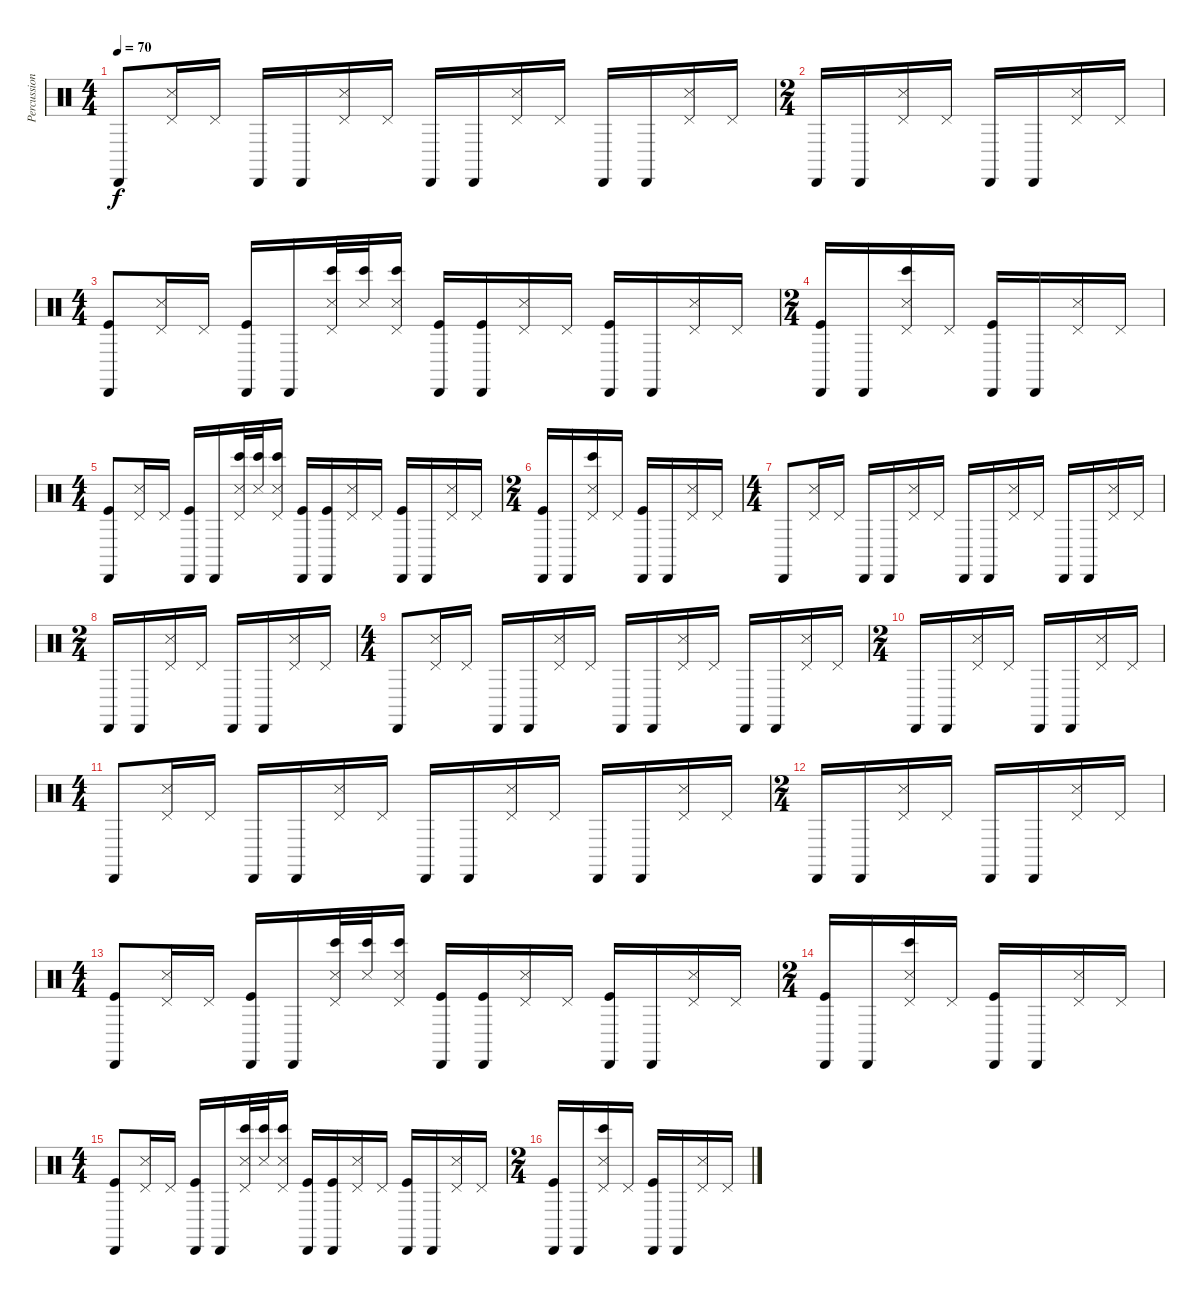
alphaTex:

\track ("Percussions" "Percussion") {instrument percussion}
\staff {score}
\articulation defaults
\ts (4 4)
\tempo 70
\clef neutral
\ks c "Cabasa (hit)".8{dy f}
("Pedal Hi-Hat (hit)" "Snare (side stick) 3").16 "Pedal Hi-Hat (hit)".16 "Cabasa (hit)".16 "Cabasa (hit)".16 ("Pedal Hi-Hat (hit)" "Snare (side stick) 3").16 "Pedal Hi-Hat (hit)".16 "Cabasa (hit)".16 "Cabasa (hit)".16 ("Pedal Hi-Hat (hit)" "Snare (side stick) 3").16 "Pedal Hi-Hat (hit)".16 "Cabasa (hit)".16 "Cabasa (hit)".16 ("Pedal Hi-Hat (hit)" "Snare (side stick) 3").16 "Pedal Hi-Hat (hit)".16 |
\ts (2 4)
"Cabasa (hit)".16 "Cabasa (hit)".16 ("Pedal Hi-Hat (hit)" "Snare (side stick) 3").16 "Pedal Hi-Hat (hit)".16 "Cabasa (hit)".16 "Cabasa (hit)".16 ("Pedal Hi-Hat (hit)" "Snare (side stick) 3").16 "Pedal Hi-Hat (hit)".16 |
\ts (4 4)
("Cabasa (hit)" "Kick (hit)").8 ("Pedal Hi-Hat (hit)" "Snare (side stick) 3").16 "Pedal Hi-Hat (hit)".16 ("Cabasa (hit)" "Kick (hit)").16 "Cabasa (hit)".16 ("Pedal Hi-Hat (hit)" "Snare (side stick) 3" "Bongo High (hit)").32 ("Snare (side stick) 3" "Bongo High (hit)").32 ("Pedal Hi-Hat (hit)" "Snare (side stick) 3" "Bongo High (hit)").16 ("Cabasa (hit)" "Kick (hit)").16 ("Cabasa (hit)" "Kick (hit)").16 ("Pedal Hi-Hat (hit)" "Snare (side stick) 3").16 "Pedal Hi-Hat (hit)".16 ("Cabasa (hit)" "Kick (hit)").16 "Cabasa (hit)".16 ("Pedal Hi-Hat (hit)" "Snare (side stick) 3").16 "Pedal Hi-Hat (hit)".16 |
\ts (2 4)
("Cabasa (hit)" "Kick (hit)").16 "Cabasa (hit)".16 ("Pedal Hi-Hat (hit)" "Snare (side stick) 3" "Bongo High (hit)").16 "Pedal Hi-Hat (hit)".16 ("Cabasa (hit)" "Kick (hit)").16 "Cabasa (hit)".16 ("Pedal Hi-Hat (hit)" "Snare (side stick) 3").16 "Pedal Hi-Hat (hit)".16 |
\ts (4 4)
("Cabasa (hit)" "Kick (hit)").8 ("Pedal Hi-Hat (hit)" "Snare (side stick) 3").16 "Pedal Hi-Hat (hit)".16 ("Cabasa (hit)" "Kick (hit)").16 "Cabasa (hit)".16 ("Pedal Hi-Hat (hit)" "Snare (side stick) 3" "Bongo High (hit)").32 ("Snare (side stick) 3" "Bongo High (hit)").32 ("Pedal Hi-Hat (hit)" "Snare (side stick) 3" "Bongo High (hit)").16 ("Cabasa (hit)" "Kick (hit)").16 ("Cabasa (hit)" "Kick (hit)").16 ("Pedal Hi-Hat (hit)" "Snare (side stick) 3").16 "Pedal Hi-Hat (hit)".16 ("Cabasa (hit)" "Kick (hit)").16 "Cabasa (hit)".16 ("Pedal Hi-Hat (hit)" "Snare (side stick) 3").16 "Pedal Hi-Hat (hit)".16 |
\ts (2 4)
("Cabasa (hit)" "Kick (hit)").16 "Cabasa (hit)".16 ("Pedal Hi-Hat (hit)" "Snare (side stick) 3" "Bongo High (hit)").16 "Pedal Hi-Hat (hit)".16 ("Cabasa (hit)" "Kick (hit)").16 "Cabasa (hit)".16 ("Pedal Hi-Hat (hit)" "Snare (side stick) 3").16 "Pedal Hi-Hat (hit)".16 |
\ts (4 4)
"Cabasa (hit)".8 ("Pedal Hi-Hat (hit)" "Snare (side stick) 3").16 "Pedal Hi-Hat (hit)".16 "Cabasa (hit)".16 "Cabasa (hit)".16 ("Pedal Hi-Hat (hit)" "Snare (side stick) 3").16 "Pedal Hi-Hat (hit)".16 "Cabasa (hit)".16 "Cabasa (hit)".16 ("Pedal Hi-Hat (hit)" "Snare (side stick) 3").16 "Pedal Hi-Hat (hit)".16 "Cabasa (hit)".16 "Cabasa (hit)".16 ("Pedal Hi-Hat (hit)" "Snare (side stick) 3").16 "Pedal Hi-Hat (hit)".16 |
\ts (2 4)
"Cabasa (hit)".16 "Cabasa (hit)".16 ("Pedal Hi-Hat (hit)" "Snare (side stick) 3").16 "Pedal Hi-Hat (hit)".16 "Cabasa (hit)".16 "Cabasa (hit)".16 ("Pedal Hi-Hat (hit)" "Snare (side stick) 3").16 "Pedal Hi-Hat (hit)".16 |
\ts (4 4)
"Cabasa (hit)".8 ("Pedal Hi-Hat (hit)" "Snare (side stick) 3").16 "Pedal Hi-Hat (hit)".16 "Cabasa (hit)".16 "Cabasa (hit)".16 ("Pedal Hi-Hat (hit)" "Snare (side stick) 3").16 "Pedal Hi-Hat (hit)".16 "Cabasa (hit)".16 "Cabasa (hit)".16 ("Pedal Hi-Hat (hit)" "Snare (side stick) 3").16 "Pedal Hi-Hat (hit)".16 "Cabasa (hit)".16 "Cabasa (hit)".16 ("Pedal Hi-Hat (hit)" "Snare (side stick) 3").16 "Pedal Hi-Hat (hit)".16 |
\ts (2 4)
"Cabasa (hit)".16 "Cabasa (hit)".16 ("Pedal Hi-Hat (hit)" "Snare (side stick) 3").16 "Pedal Hi-Hat (hit)".16 "Cabasa (hit)".16 "Cabasa (hit)".16 ("Pedal Hi-Hat (hit)" "Snare (side stick) 3").16 "Pedal Hi-Hat (hit)".16 |
\ts (4 4)
"Cabasa (hit)".8 ("Pedal Hi-Hat (hit)" "Snare (side stick) 3").16 "Pedal Hi-Hat (hit)".16 "Cabasa (hit)".16 "Cabasa (hit)".16 ("Pedal Hi-Hat (hit)" "Snare (side stick) 3").16 "Pedal Hi-Hat (hit)".16 "Cabasa (hit)".16 "Cabasa (hit)".16 ("Pedal Hi-Hat (hit)" "Snare (side stick) 3").16 "Pedal Hi-Hat (hit)".16 "Cabasa (hit)".16 "Cabasa (hit)".16 ("Pedal Hi-Hat (hit)" "Snare (side stick) 3").16 "Pedal Hi-Hat (hit)".16 |
\ts (2 4)
"Cabasa (hit)".16 "Cabasa (hit)".16 ("Pedal Hi-Hat (hit)" "Snare (side stick) 3").16 "Pedal Hi-Hat (hit)".16 "Cabasa (hit)".16 "Cabasa (hit)".16 ("Pedal Hi-Hat (hit)" "Snare (side stick) 3").16 "Pedal Hi-Hat (hit)".16 |
\ts (4 4)
("Cabasa (hit)" "Kick (hit)").8 ("Pedal Hi-Hat (hit)" "Snare (side stick) 3").16 "Pedal Hi-Hat (hit)".16 ("Cabasa (hit)" "Kick (hit)").16 "Cabasa (hit)".16 ("Pedal Hi-Hat (hit)" "Snare (side stick) 3" "Bongo High (hit)").32 ("Snare (side stick) 3" "Bongo High (hit)").32 ("Pedal Hi-Hat (hit)" "Snare (side stick) 3" "Bongo High (hit)").16 ("Cabasa (hit)" "Kick (hit)").16 ("Cabasa (hit)" "Kick (hit)").16 ("Pedal Hi-Hat (hit)" "Snare (side stick) 3").16 "Pedal Hi-Hat (hit)".16 ("Cabasa (hit)" "Kick (hit)").16 "Cabasa (hit)".16 ("Pedal Hi-Hat (hit)" "Snare (side stick) 3").16 "Pedal Hi-Hat (hit)".16 |
\ts (2 4)
("Cabasa (hit)" "Kick (hit)").16 "Cabasa (hit)".16 ("Pedal Hi-Hat (hit)" "Snare (side stick) 3" "Bongo High (hit)").16 "Pedal Hi-Hat (hit)".16 ("Cabasa (hit)" "Kick (hit)").16 "Cabasa (hit)".16 ("Pedal Hi-Hat (hit)" "Snare (side stick) 3").16 "Pedal Hi-Hat (hit)".16 |
\ts (4 4)
("Cabasa (hit)" "Kick (hit)").8 ("Pedal Hi-Hat (hit)" "Snare (side stick) 3").16 "Pedal Hi-Hat (hit)".16 ("Cabasa (hit)" "Kick (hit)").16 "Cabasa (hit)".16 ("Pedal Hi-Hat (hit)" "Snare (side stick) 3" "Bongo High (hit)").32 ("Snare (side stick) 3" "Bongo High (hit)").32 ("Pedal Hi-Hat (hit)" "Snare (side stick) 3" "Bongo High (hit)").16 ("Cabasa (hit)" "Kick (hit)").16 ("Cabasa (hit)" "Kick (hit)").16 ("Pedal Hi-Hat (hit)" "Snare (side stick) 3").16 "Pedal Hi-Hat (hit)".16 ("Cabasa (hit)" "Kick (hit)").16 "Cabasa (hit)".16 ("Pedal Hi-Hat (hit)" "Snare (side stick) 3").16 "Pedal Hi-Hat (hit)".16 |
\ts (2 4)
("Cabasa (hit)" "Kick (hit)").16 "Cabasa (hit)".16 ("Pedal Hi-Hat (hit)" "Snare (side stick) 3" "Bongo High (hit)").16 "Pedal Hi-Hat (hit)".16 ("Cabasa (hit)" "Kick (hit)").16 "Cabasa (hit)".16 ("Pedal Hi-Hat (hit)" "Snare (side stick) 3").16 "Pedal Hi-Hat (hit)".16
